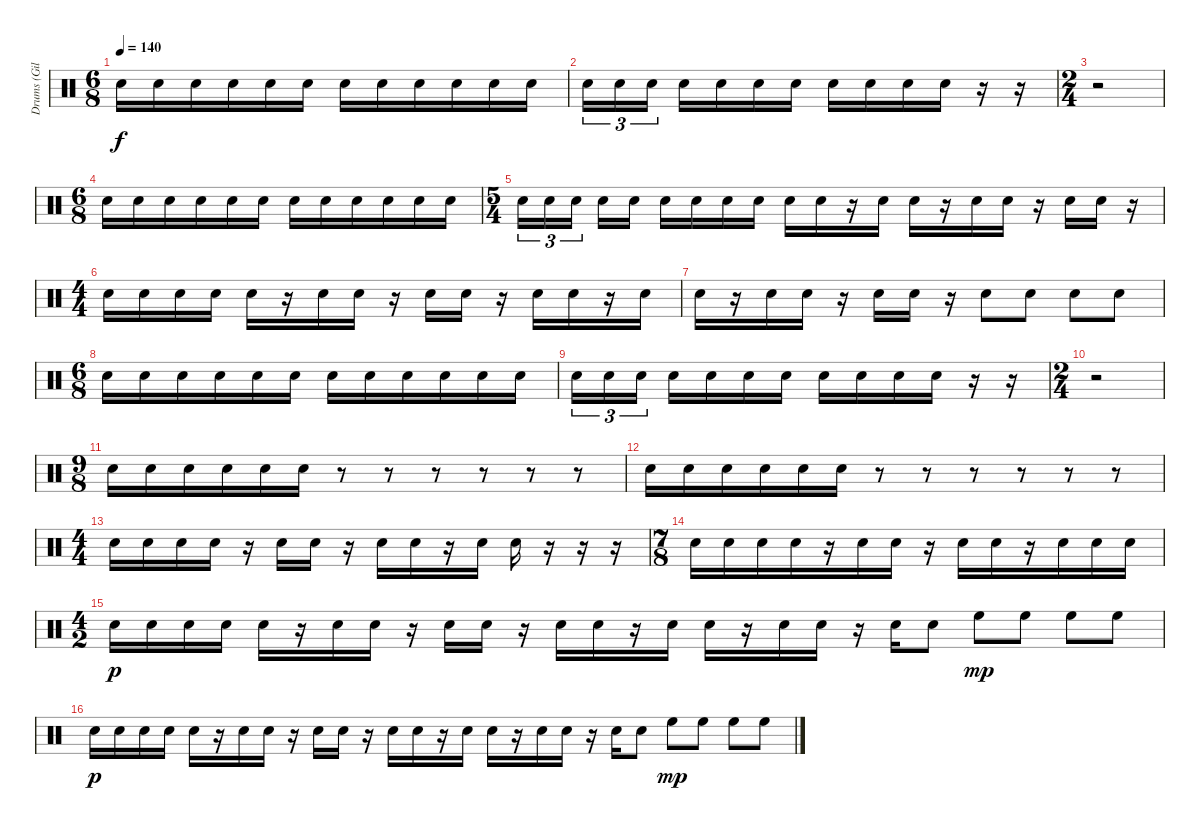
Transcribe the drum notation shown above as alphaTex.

\track ("Drums (Giles)" "Drums (Gil") {instrument percussion}
\staff {score}
\articulation defaults
\ts (6 8)
\tempo 140
\clef neutral
\ks c "Electric Snare (hit)".16{dy f} "Electric Snare (hit)".16 "Electric Snare (hit)".16 "Electric Snare (hit)".16 "Electric Snare (hit)".16 "Electric Snare (hit)".16 "Electric Snare (hit)".16 "Electric Snare (hit)".16 "Electric Snare (hit)".16 "Electric Snare (hit)".16 "Electric Snare (hit)".16 "Electric Snare (hit)".16
|
"Electric Snare (hit)".16{tu (3 2)} "Electric Snare (hit)".16{tu (3 2)} "Electric Snare (hit)".16{tu (3 2) beam splitsecondary} "Electric Snare (hit)".16 "Electric Snare (hit)".16 "Electric Snare (hit)".16 "Electric Snare (hit)".16 "Electric Snare (hit)".16 "Electric Snare (hit)".16 "Electric Snare (hit)".16 "Electric Snare (hit)".16 r.16 r.16 |
\ts (2 4)
r.2 |
\ts (6 8)
"Electric Snare (hit)".16 "Electric Snare (hit)".16 "Electric Snare (hit)".16 "Electric Snare (hit)".16 "Electric Snare (hit)".16 "Electric Snare (hit)".16 "Electric Snare (hit)".16 "Electric Snare (hit)".16 "Electric Snare (hit)".16 "Electric Snare (hit)".16 "Electric Snare (hit)".16 "Electric Snare (hit)".16 |
\ts (5 4)
"Electric Snare (hit)".16{tu (3 2)} "Electric Snare (hit)".16{tu (3 2)} "Electric Snare (hit)".16{tu (3 2) beam splitsecondary} "Electric Snare (hit)".16 "Electric Snare (hit)".16 "Electric Snare (hit)".16 "Electric Snare (hit)".16 "Electric Snare (hit)".16 "Electric Snare (hit)".16 "Electric Snare (hit)".16 "Electric Snare (hit)".16 r.16 "Electric Snare (hit)".16 "Electric Snare (hit)".16 r.16 "Electric Snare (hit)".16 "Electric Snare (hit)".16 r.16 "Electric Snare (hit)".16 "Electric Snare (hit)".16 r.16 |
\ts (4 4)
"Electric Snare (hit)".16 "Electric Snare (hit)".16 "Electric Snare (hit)".16 "Electric Snare (hit)".16 "Electric Snare (hit)".16 r.16 "Electric Snare (hit)".16 "Electric Snare (hit)".16 r.16 "Electric Snare (hit)".16 "Electric Snare (hit)".16 r.16 "Electric Snare (hit)".16 "Electric Snare (hit)".16 r.16 "Electric Snare (hit)".16 |
"Electric Snare (hit)".16 r.16 "Electric Snare (hit)".16 "Electric Snare (hit)".16 r.16 "Electric Snare (hit)".16 "Electric Snare (hit)".16 r.16 "Electric Snare (hit)".8 "Electric Snare (hit)".8 "Electric Snare (hit)".8 "Electric Snare (hit)".8 |
\ts (6 8)
"Electric Snare (hit)".16 "Electric Snare (hit)".16 "Electric Snare (hit)".16 "Electric Snare (hit)".16 "Electric Snare (hit)".16 "Electric Snare (hit)".16 "Electric Snare (hit)".16 "Electric Snare (hit)".16 "Electric Snare (hit)".16 "Electric Snare (hit)".16 "Electric Snare (hit)".16 "Electric Snare (hit)".16 |
"Electric Snare (hit)".16{tu (3 2)} "Electric Snare (hit)".16{tu (3 2)} "Electric Snare (hit)".16{tu (3 2) beam splitsecondary} "Electric Snare (hit)".16 "Electric Snare (hit)".16 "Electric Snare (hit)".16 "Electric Snare (hit)".16 "Electric Snare (hit)".16 "Electric Snare (hit)".16 "Electric Snare (hit)".16 "Electric Snare (hit)".16 r.16 r.16 |
\ts (2 4)
r.2 |
\ts (9 8)
"Electric Snare (hit)".16 "Electric Snare (hit)".16 "Electric Snare (hit)".16 "Electric Snare (hit)".16 "Electric Snare (hit)".16 "Electric Snare (hit)".16 r.8 r.8 r.8 r.8 r.8 r.8 |
"Electric Snare (hit)".16 "Electric Snare (hit)".16 "Electric Snare (hit)".16 "Electric Snare (hit)".16 "Electric Snare (hit)".16 "Electric Snare (hit)".16 r.8 r.8 r.8 r.8 r.8 r.8 |
\ts (4 4)
"Electric Snare (hit)".16 "Electric Snare (hit)".16 "Electric Snare (hit)".16 "Electric Snare (hit)".16 r.16 "Electric Snare (hit)".16 "Electric Snare (hit)".16 r.16 "Electric Snare (hit)".16 "Electric Snare (hit)".16 r.16 "Electric Snare (hit)".16 "Electric Snare (hit)".16 r.16 r.16 r.16 |
\ts (7 8)
"Electric Snare (hit)".16 "Electric Snare (hit)".16 "Electric Snare (hit)".16 "Electric Snare (hit)".16 r.16 "Electric Snare (hit)".16 "Electric Snare (hit)".16 r.16 "Electric Snare (hit)".16 "Electric Snare (hit)".16 r.16 "Electric Snare (hit)".16 "Electric Snare (hit)".16 "Electric Snare (hit)".16 |
\ts (4 2)
"Electric Snare (hit)".16{dy p} "Electric Snare (hit)".16 "Electric Snare (hit)".16 "Electric Snare (hit)".16 "Electric Snare (hit)".16 r.16 "Electric Snare (hit)".16 "Electric Snare (hit)".16 r.16 "Electric Snare (hit)".16 "Electric Snare (hit)".16 r.16 "Electric Snare (hit)".16 "Electric Snare (hit)".16 r.16 "Electric Snare (hit)".16 "Electric Snare (hit)".16 r.16 "Electric Snare (hit)".16 "Electric Snare (hit)".16 r.16 "Electric Snare (hit)".16 "Electric Snare (hit)".8 "High Floor Tom (hit)".8{dy mp} "High Floor Tom (hit)".8 "High Floor Tom (hit)".8 "High Floor Tom (hit)".8 |
"Electric Snare (hit)".16{dy p} "Electric Snare (hit)".16 "Electric Snare (hit)".16 "Electric Snare (hit)".16 "Electric Snare (hit)".16 r.16 "Electric Snare (hit)".16 "Electric Snare (hit)".16 r.16 "Electric Snare (hit)".16 "Electric Snare (hit)".16 r.16 "Electric Snare (hit)".16 "Electric Snare (hit)".16 r.16 "Electric Snare (hit)".16 "Electric Snare (hit)".16 r.16 "Electric Snare (hit)".16 "Electric Snare (hit)".16 r.16 "Electric Snare (hit)".16 "Electric Snare (hit)".8 "High Floor Tom (hit)".8{dy mp} "High Floor Tom (hit)".8 "High Floor Tom (hit)".8 "High Floor Tom (hit)".8
